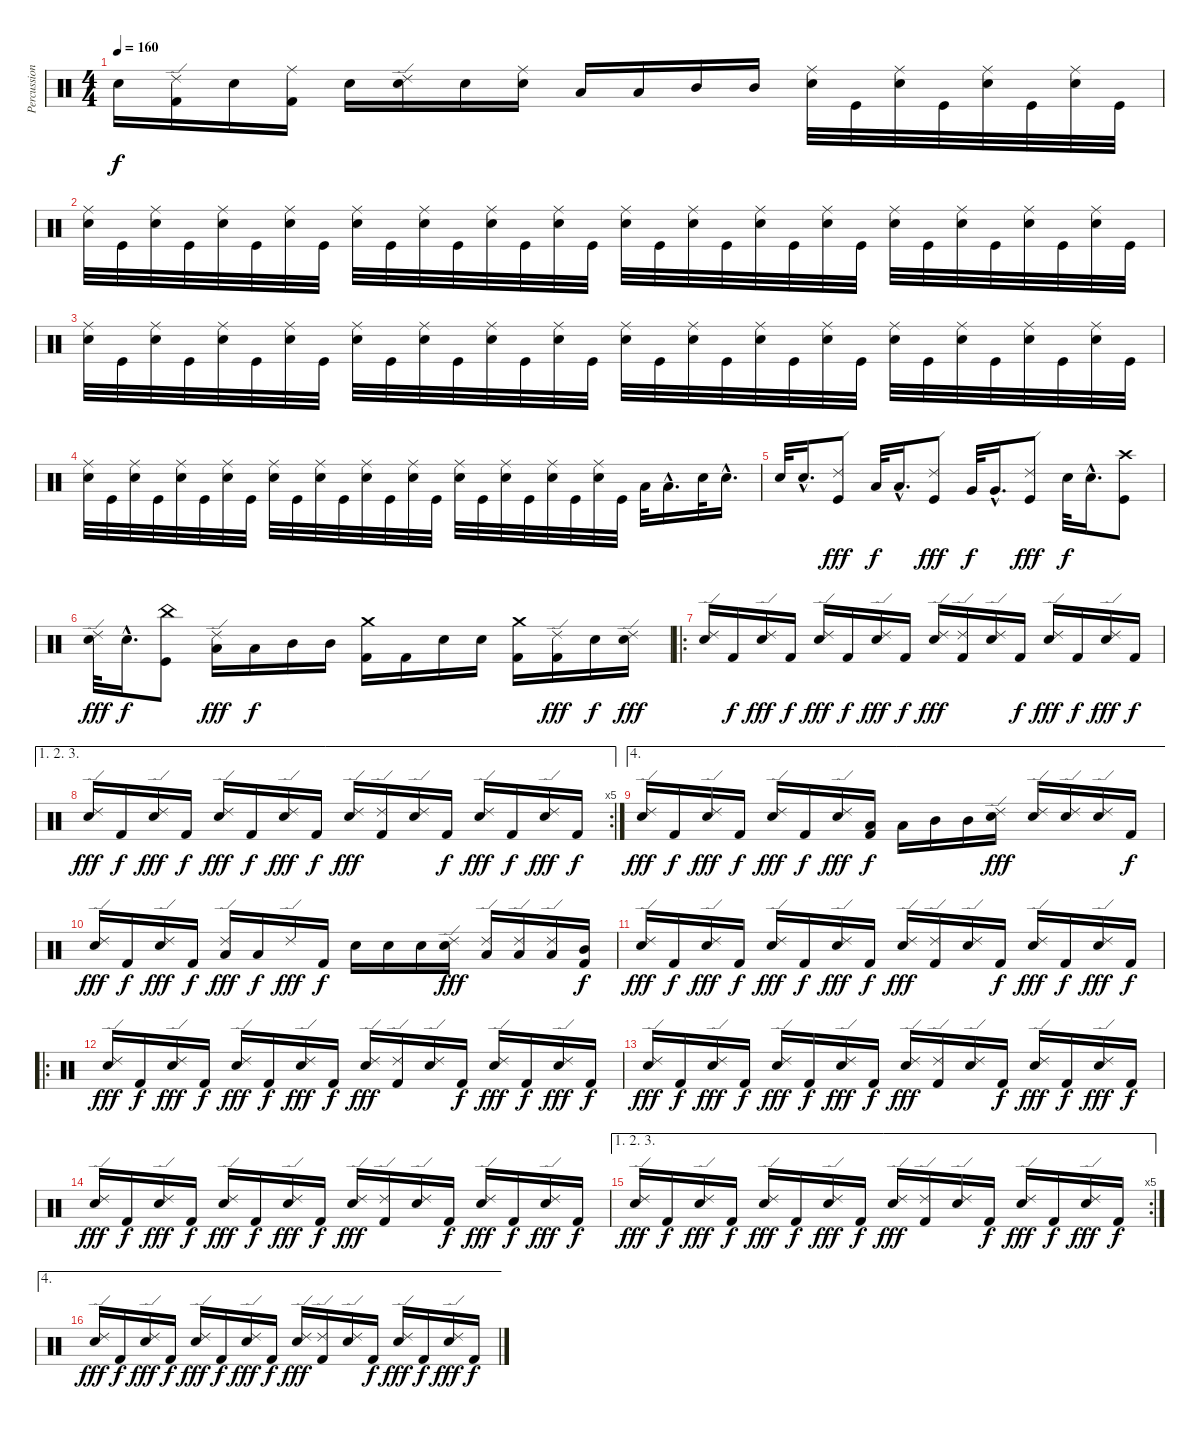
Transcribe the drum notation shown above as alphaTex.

\track ("Percussion" "Percussion") {instrument percussion}
\staff {score}
\articulation defaults
\ts (4 4)
\tempo 160
\clef neutral
\ks c "Electric Snare (hit)".16{dy f}
("Ride (edge) 2" "Kick (hit) 2").16 "Electric Snare (hit)".16 ("Ride (middle)" "Kick (hit) 2").16 "Electric Snare (hit)".16 ("Ride (edge) 2" "Electric Snare (hit)").16 "Electric Snare (hit)".16 ("Ride (middle)" "Electric Snare (hit)").16 "Low Tom (hit)".16 "Low Tom (hit)".16 "Mid Tom (hit)".16 "Mid Tom (hit)".16 ("Ride (middle)" "Electric Snare (hit)").32 "Kick (hit)".32 ("Ride (middle)" "Electric Snare (hit)").32 "Kick (hit)".32 ("Ride (middle)" "Electric Snare (hit)").32 "Kick (hit)".32 ("Ride (middle)" "Electric Snare (hit)").32 "Kick (hit)".32 |
("Ride (middle)" "Electric Snare (hit)").32 "Kick (hit)".32 ("Ride (middle)" "Electric Snare (hit)").32 "Kick (hit)".32 ("Ride (middle)" "Electric Snare (hit)").32 "Kick (hit)".32 ("Ride (middle)" "Electric Snare (hit)").32 "Kick (hit)".32 ("Ride (middle)" "Electric Snare (hit)").32 "Kick (hit)".32 ("Ride (middle)" "Electric Snare (hit)").32 "Kick (hit)".32 ("Ride (middle)" "Electric Snare (hit)").32 "Kick (hit)".32 ("Ride (middle)" "Electric Snare (hit)").32 "Kick (hit)".32 ("Ride (middle)" "Electric Snare (hit)").32 "Kick (hit)".32 ("Ride (middle)" "Electric Snare (hit)").32 "Kick (hit)".32 ("Ride (middle)" "Electric Snare (hit)").32 "Kick (hit)".32 ("Ride (middle)" "Electric Snare (hit)").32 "Kick (hit)".32 ("Ride (middle)" "Electric Snare (hit)").32 "Kick (hit)".32 ("Ride (middle)" "Electric Snare (hit)").32 "Kick (hit)".32 ("Ride (middle)" "Electric Snare (hit)").32 "Kick (hit)".32 ("Ride (middle)" "Electric Snare (hit)").32 "Kick (hit)".32 |
("Ride (middle)" "Electric Snare (hit)").32 "Kick (hit)".32 ("Ride (middle)" "Electric Snare (hit)").32 "Kick (hit)".32 ("Ride (middle)" "Electric Snare (hit)").32 "Kick (hit)".32 ("Ride (middle)" "Electric Snare (hit)").32 "Kick (hit)".32 ("Ride (middle)" "Electric Snare (hit)").32 "Kick (hit)".32 ("Ride (middle)" "Electric Snare (hit)").32 "Kick (hit)".32 ("Ride (middle)" "Electric Snare (hit)").32 "Kick (hit)".32 ("Ride (middle)" "Electric Snare (hit)").32 "Kick (hit)".32 ("Ride (middle)" "Electric Snare (hit)").32 "Kick (hit)".32 ("Ride (middle)" "Electric Snare (hit)").32 "Kick (hit)".32 ("Ride (middle)" "Electric Snare (hit)").32 "Kick (hit)".32 ("Ride (middle)" "Electric Snare (hit)").32 "Kick (hit)".32 ("Ride (middle)" "Electric Snare (hit)").32 "Kick (hit)".32 ("Ride (middle)" "Electric Snare (hit)").32 "Kick (hit)".32 ("Ride (middle)" "Electric Snare (hit)").32 "Kick (hit)".32 ("Ride (middle)" "Electric Snare (hit)").32 "Kick (hit)".32 |
("Ride (middle)" "Electric Snare (hit)").32 "Kick (hit)".32 ("Ride (middle)" "Electric Snare (hit)").32 "Kick (hit)".32 ("Ride (middle)" "Electric Snare (hit)").32 "Kick (hit)".32 ("Ride (middle)" "Electric Snare (hit)").32 "Kick (hit)".32 ("Ride (middle)" "Electric Snare (hit)").32 "Kick (hit)".32 ("Ride (middle)" "Electric Snare (hit)").32 "Kick (hit)".32 ("Ride (middle)" "Electric Snare (hit)").32 "Kick (hit)".32 ("Ride (middle)" "Electric Snare (hit)").32 "Kick (hit)".32 ("Ride (middle)" "Electric Snare (hit)").32 "Kick (hit)".32 ("Ride (middle)" "Electric Snare (hit)").32 "Kick (hit)".32 ("Ride (middle)" "Electric Snare (hit)").32 "Kick (hit)".32 ("Ride (middle)" "Electric Snare (hit)").32 "Kick (hit)".32 "Low Tom (hit)".32 "Low Tom (hit)"{hac}.16{d} "Electric Snare (hit)".32 "Electric Snare (hit)"{hac}.16{d} |
"Electric Snare (hit)".32 "Electric Snare (hit)"{hac}.16{d} ("Ride (edge) 2" "Kick (hit)").8{dy fff} "Low Tom (hit)".32{dy f} "Low Tom (hit)"{hac}.16{d} ("Ride (edge) 2" "Kick (hit)").8{dy fff} "Very Low Tom (hit)".32{dy f} "Very Low Tom (hit)"{hac}.16{d} ("Ride (edge) 2" "Kick (hit)").8{dy fff} "Electric Snare (hit)".32{dy f} "Electric Snare (hit)"{hac}.16{d} ("Crash high (hit)" "Kick (hit)").8 |
("Ride (edge) 2" "Electric Snare (hit)").32{dy fff} "Electric Snare (hit)"{hac}.16{d dy f} ("China (hit)" "Kick (hit)").8 ("Ride (edge) 2" "Low Tom (hit)").16{dy fff} "Low Tom (hit)".16{dy f} "Mid Tom (hit)".16 "Mid Tom (hit)".16 ("Crash medium (hit)" "Kick (hit) 2").16 "Kick (hit) 2".16 "Electric Snare (hit)".16 "Electric Snare (hit)".16 ("Crash medium (hit)" "Kick (hit) 2").16 ("Ride (edge) 2" "Kick (hit) 2").16{dy fff} "Electric Snare (hit)".16{dy f} ("Ride (edge) 2" "Electric Snare (hit)").16{dy fff} |
\ro
("Ride (edge) 2" "Electric Snare (hit)").16 "Kick (hit) 2".16{dy f} ("Ride (edge) 2" "Electric Snare (hit)").16{dy fff} "Kick (hit) 2".16{dy f} ("Ride (edge) 2" "Electric Snare (hit)").16{dy fff} "Kick (hit) 2".16{dy f} ("Ride (edge) 2" "Electric Snare (hit)").16{dy fff} "Kick (hit) 2".16{dy f} ("Ride (edge) 2" "Electric Snare (hit)").16{dy fff} ("Ride (edge) 2" "Kick (hit) 2").16 ("Ride (edge) 2" "Electric Snare (hit)").16 "Kick (hit) 2".16{dy f} ("Ride (edge) 2" "Electric Snare (hit)").16{dy fff} "Kick (hit) 2".16{dy f} ("Ride (edge) 2" "Electric Snare (hit)").16{dy fff} "Kick (hit) 2".16{dy f} |
\ae (1 2 3)
\rc 5
("Ride (edge) 2" "Electric Snare (hit)").16{dy fff} "Kick (hit) 2".16{dy f} ("Ride (edge) 2" "Electric Snare (hit)").16{dy fff} "Kick (hit) 2".16{dy f} ("Ride (edge) 2" "Electric Snare (hit)").16{dy fff} "Kick (hit) 2".16{dy f} ("Ride (edge) 2" "Electric Snare (hit)").16{dy fff} "Kick (hit) 2".16{dy f} ("Ride (edge) 2" "Electric Snare (hit)").16{dy fff} ("Ride (edge) 2" "Kick (hit) 2").16 ("Ride (edge) 2" "Electric Snare (hit)").16 "Kick (hit) 2".16{dy f} ("Ride (edge) 2" "Electric Snare (hit)").16{dy fff} "Kick (hit) 2".16{dy f} ("Ride (edge) 2" "Electric Snare (hit)").16{dy fff} "Kick (hit) 2".16{dy f} |
\ae 4
("Ride (edge) 2" "Electric Snare (hit)").16{dy fff} "Kick (hit) 2".16{dy f} ("Ride (edge) 2" "Electric Snare (hit)").16{dy fff} "Kick (hit) 2".16{dy f} ("Ride (edge) 2" "Electric Snare (hit)").16{dy fff} "Kick (hit) 2".16{dy f} ("Ride (edge) 2" "Electric Snare (hit)").16{dy fff} ("Low Tom (hit)" "Kick (hit) 2").16{dy f} "Low Tom (hit)".16 "Mid Tom (hit)".16 "Mid Tom (hit)".16 ("Ride (edge) 2" "Electric Snare (hit)").16{dy fff} ("Ride (edge) 2" "Electric Snare (hit)").16 ("Ride (edge) 2" "Electric Snare (hit)").16 ("Ride (edge) 2" "Electric Snare (hit)").16 "Kick (hit) 2".16{dy f} |
("Ride (edge) 2" "Electric Snare (hit)").16{dy fff} "Kick (hit) 2".16{dy f} ("Ride (edge) 2" "Electric Snare (hit)").16{dy fff} "Kick (hit) 2".16{dy f} ("Ride (edge) 2" "Low Tom (hit)").16{dy fff} "Low Tom (hit)".16{dy f} "Ride (edge) 2".16{dy fff} "Kick (hit) 2".16{dy f} "Electric Snare (hit)".16 "Electric Snare (hit)".16 "Electric Snare (hit)".16 ("Ride (edge) 2" "Electric Snare (hit)").16{dy fff} ("Ride (edge) 2" "Low Tom (hit)").16 ("Ride (edge) 2" "Low Tom (hit)").16 ("Ride (edge) 2" "Low Tom (hit)").16 ("Mid Tom (hit)" "Kick (hit) 2").16{dy f} |
("Ride (edge) 2" "Electric Snare (hit)").16{dy fff} "Kick (hit) 2".16{dy f} ("Ride (edge) 2" "Electric Snare (hit)").16{dy fff} "Kick (hit) 2".16{dy f} ("Ride (edge) 2" "Electric Snare (hit)").16{dy fff} "Kick (hit) 2".16{dy f} ("Ride (edge) 2" "Electric Snare (hit)").16{dy fff} "Kick (hit) 2".16{dy f} ("Ride (edge) 2" "Electric Snare (hit)").16{dy fff} ("Ride (edge) 2" "Kick (hit) 2").16 ("Ride (edge) 2" "Electric Snare (hit)").16 "Kick (hit) 2".16{dy f} ("Ride (edge) 2" "Electric Snare (hit)").16{dy fff} "Kick (hit) 2".16{dy f} ("Ride (edge) 2" "Electric Snare (hit)").16{dy fff} "Kick (hit) 2".16{dy f} |
\ro
("Ride (edge) 2" "Electric Snare (hit)").16{dy fff} "Kick (hit) 2".16{dy f} ("Ride (edge) 2" "Electric Snare (hit)").16{dy fff} "Kick (hit) 2".16{dy f} ("Ride (edge) 2" "Electric Snare (hit)").16{dy fff} "Kick (hit) 2".16{dy f} ("Ride (edge) 2" "Electric Snare (hit)").16{dy fff} "Kick (hit) 2".16{dy f} ("Ride (edge) 2" "Electric Snare (hit)").16{dy fff} ("Ride (edge) 2" "Kick (hit) 2").16 ("Ride (edge) 2" "Electric Snare (hit)").16 "Kick (hit) 2".16{dy f} ("Ride (edge) 2" "Electric Snare (hit)").16{dy fff} "Kick (hit) 2".16{dy f} ("Ride (edge) 2" "Electric Snare (hit)").16{dy fff} "Kick (hit) 2".16{dy f} |
("Ride (edge) 2" "Electric Snare (hit)").16{dy fff} "Kick (hit) 2".16{dy f} ("Ride (edge) 2" "Electric Snare (hit)").16{dy fff} "Kick (hit) 2".16{dy f} ("Ride (edge) 2" "Electric Snare (hit)").16{dy fff} "Kick (hit) 2".16{dy f} ("Ride (edge) 2" "Electric Snare (hit)").16{dy fff} "Kick (hit) 2".16{dy f} ("Ride (edge) 2" "Electric Snare (hit)").16{dy fff} ("Ride (edge) 2" "Kick (hit) 2").16 ("Ride (edge) 2" "Electric Snare (hit)").16 "Kick (hit) 2".16{dy f} ("Ride (edge) 2" "Electric Snare (hit)").16{dy fff} "Kick (hit) 2".16{dy f} ("Ride (edge) 2" "Electric Snare (hit)").16{dy fff} "Kick (hit) 2".16{dy f} |
("Ride (edge) 2" "Electric Snare (hit)").16{dy fff} "Kick (hit) 2".16{dy f} ("Ride (edge) 2" "Electric Snare (hit)").16{dy fff} "Kick (hit) 2".16{dy f} ("Ride (edge) 2" "Electric Snare (hit)").16{dy fff} "Kick (hit) 2".16{dy f} ("Ride (edge) 2" "Electric Snare (hit)").16{dy fff} "Kick (hit) 2".16{dy f} ("Ride (edge) 2" "Electric Snare (hit)").16{dy fff} ("Ride (edge) 2" "Kick (hit) 2").16 ("Ride (edge) 2" "Electric Snare (hit)").16 "Kick (hit) 2".16{dy f} ("Ride (edge) 2" "Electric Snare (hit)").16{dy fff} "Kick (hit) 2".16{dy f} ("Ride (edge) 2" "Electric Snare (hit)").16{dy fff} "Kick (hit) 2".16{dy f} |
\ae (1 2 3)
\rc 5
("Ride (edge) 2" "Electric Snare (hit)").16{dy fff} "Kick (hit) 2".16{dy f} ("Ride (edge) 2" "Electric Snare (hit)").16{dy fff} "Kick (hit) 2".16{dy f} ("Ride (edge) 2" "Electric Snare (hit)").16{dy fff} "Kick (hit) 2".16{dy f} ("Ride (edge) 2" "Electric Snare (hit)").16{dy fff} "Kick (hit) 2".16{dy f} ("Ride (edge) 2" "Electric Snare (hit)").16{dy fff} ("Ride (edge) 2" "Kick (hit) 2").16 ("Ride (edge) 2" "Electric Snare (hit)").16 "Kick (hit) 2".16{dy f} ("Ride (edge) 2" "Electric Snare (hit)").16{dy fff} "Kick (hit) 2".16{dy f} ("Ride (edge) 2" "Electric Snare (hit)").16{dy fff} "Kick (hit) 2".16{dy f} |
\ae 4
("Ride (edge) 2" "Electric Snare (hit)").16{dy fff} "Kick (hit) 2".16{dy f} ("Ride (edge) 2" "Electric Snare (hit)").16{dy fff} "Kick (hit) 2".16{dy f} ("Ride (edge) 2" "Electric Snare (hit)").16{dy fff} "Kick (hit) 2".16{dy f} ("Ride (edge) 2" "Electric Snare (hit)").16{dy fff} "Kick (hit) 2".16{dy f} ("Ride (edge) 2" "Electric Snare (hit)").16{dy fff} ("Ride (edge) 2" "Kick (hit) 2").16 ("Ride (edge) 2" "Electric Snare (hit)").16 "Kick (hit) 2".16{dy f} ("Ride (edge) 2" "Electric Snare (hit)").16{dy fff} "Kick (hit) 2".16{dy f} ("Ride (edge) 2" "Electric Snare (hit)").16{dy fff} "Kick (hit) 2".16{dy f}
